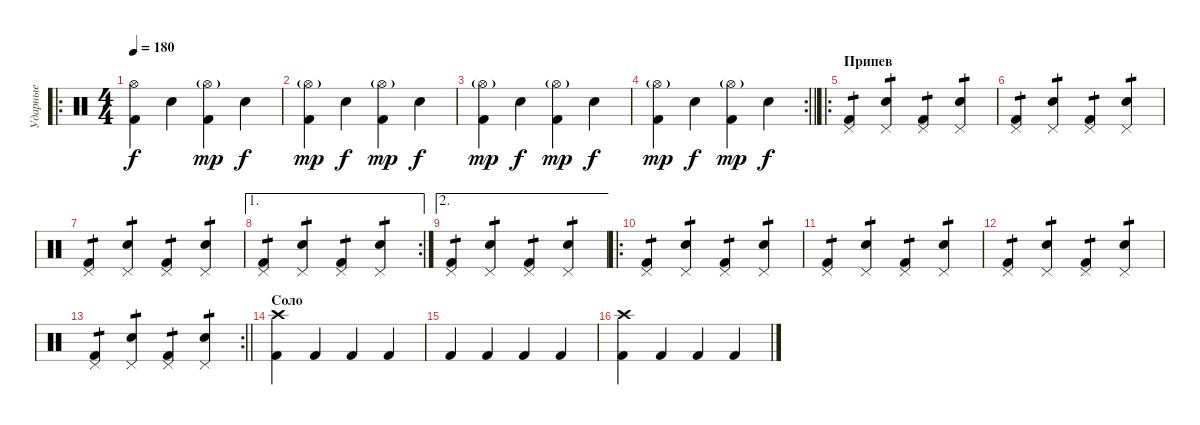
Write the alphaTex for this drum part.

\track ("Ударные" "Ударные") {instrument percussion}
\staff {score}
\articulation defaults
\ro
\ts (4 4)
\tempo 180
\clef neutral
\ks c
("Hi-Hat (open)" "Kick (hit) 2").4{dy f} "Snare (hit) 2".4 ("Hi-Hat (open)"{g} "Kick (hit) 2").4{dy mp} "Snare (hit) 2".4{dy f} |
("Hi-Hat (open)"{g} "Kick (hit) 2").4{dy mp} "Snare (hit) 2".4{dy f} ("Hi-Hat (open)"{g} "Kick (hit) 2").4{dy mp} "Snare (hit) 2".4{dy f} |
("Hi-Hat (open)"{g} "Kick (hit) 2").4{dy mp} "Snare (hit) 2".4{dy f} ("Hi-Hat (open)"{g} "Kick (hit) 2").4{dy mp} "Snare (hit) 2".4{dy f} |
\rc 2
\barLineRight lightlight
("Hi-Hat (open)"{g} "Kick (hit) 2").4{dy mp} "Snare (hit) 2".4{dy f} ("Hi-Hat (open)"{g} "Kick (hit) 2").4{dy mp} "Snare (hit) 2".4{dy f} |
\ro
\section ("" "Припев")
("Pedal Hi-Hat (hit)" "Kick (hit) 2").4{tp 1} ("Snare (hit) 2" "Pedal Hi-Hat (hit)").4{tp 1} ("Pedal Hi-Hat (hit)" "Kick (hit) 2").4{tp 1} ("Snare (hit) 2" "Pedal Hi-Hat (hit)").4{tp 1} |
("Pedal Hi-Hat (hit)" "Kick (hit) 2").4{tp 1} ("Snare (hit) 2" "Pedal Hi-Hat (hit)").4{tp 1} ("Pedal Hi-Hat (hit)" "Kick (hit) 2").4{tp 1} ("Snare (hit) 2" "Pedal Hi-Hat (hit)").4{tp 1} |
("Pedal Hi-Hat (hit)" "Kick (hit) 2").4{tp 1} ("Snare (hit) 2" "Pedal Hi-Hat (hit)").4{tp 1} ("Pedal Hi-Hat (hit)" "Kick (hit) 2").4{tp 1} ("Snare (hit) 2" "Pedal Hi-Hat (hit)").4{tp 1} |
\ae 1
\rc 2
("Pedal Hi-Hat (hit)" "Kick (hit) 2").4{tp 1} ("Snare (hit) 2" "Pedal Hi-Hat (hit)").4{tp 1} ("Pedal Hi-Hat (hit)" "Kick (hit) 2").4{tp 1} ("Snare (hit) 2" "Pedal Hi-Hat (hit)").4{tp 1} |
\ae 2
("Pedal Hi-Hat (hit)" "Kick (hit) 2").4{tp 1} ("Snare (hit) 2" "Pedal Hi-Hat (hit)").4{tp 1} ("Pedal Hi-Hat (hit)" "Kick (hit) 2").4{tp 1} ("Snare (hit) 2" "Pedal Hi-Hat (hit)").4{tp 1} |
\ro
("Pedal Hi-Hat (hit)" "Kick (hit) 2").4{tp 1} ("Snare (hit) 2" "Pedal Hi-Hat (hit)").4{tp 1} ("Pedal Hi-Hat (hit)" "Kick (hit) 2").4{tp 1} ("Snare (hit) 2" "Pedal Hi-Hat (hit)").4{tp 1} |
("Pedal Hi-Hat (hit)" "Kick (hit) 2").4{tp 1} ("Snare (hit) 2" "Pedal Hi-Hat (hit)").4{tp 1} ("Pedal Hi-Hat (hit)" "Kick (hit) 2").4{tp 1} ("Snare (hit) 2" "Pedal Hi-Hat (hit)").4{tp 1} |
("Pedal Hi-Hat (hit)" "Kick (hit) 2").4{tp 1} ("Snare (hit) 2" "Pedal Hi-Hat (hit)").4{tp 1} ("Pedal Hi-Hat (hit)" "Kick (hit) 2").4{tp 1} ("Snare (hit) 2" "Pedal Hi-Hat (hit)").4{tp 1} |
\rc 2
\barLineRight lightlight
("Pedal Hi-Hat (hit)" "Kick (hit) 2").4{tp 1} ("Snare (hit) 2" "Pedal Hi-Hat (hit)").4{tp 1} ("Pedal Hi-Hat (hit)" "Kick (hit) 2").4{tp 1} ("Snare (hit) 2" "Pedal Hi-Hat (hit)").4{tp 1} |
\section ("" "Соло")
("Crash high (hit)" "Kick (hit) 2").4 "Kick (hit) 2".4 "Kick (hit) 2".4 "Kick (hit) 2".4 |
"Kick (hit) 2".4 "Kick (hit) 2".4 "Kick (hit) 2".4 "Kick (hit) 2".4 |
("Crash high (hit)" "Kick (hit) 2").4 "Kick (hit) 2".4 "Kick (hit) 2".4 "Kick (hit) 2".4
